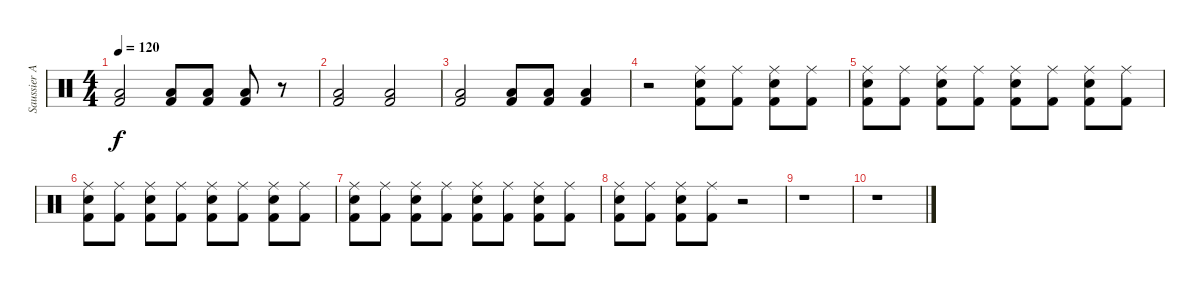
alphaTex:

\track ("Saussier Arthur" "Saussier A") {instrument percussion}
\staff {score}
\articulation defaults
\ts (4 4)
\tempo 120
\clef neutral
\ks c
("Low Floor Tom (hit)" "Kick (hit) 2").2{dy f} ("Low Floor Tom (hit)" "Kick (hit) 2").8 ("Low Floor Tom (hit)" "Kick (hit) 2").8 ("Low Floor Tom (hit)" "Kick (hit) 2").8 r.8 |
("Low Floor Tom (hit)" "Kick (hit) 2").2 ("Low Floor Tom (hit)" "Kick (hit) 2").2 |
("Low Floor Tom (hit)" "Kick (hit) 2").2 ("Low Floor Tom (hit)" "Kick (hit) 2").8 ("Low Floor Tom (hit)" "Kick (hit) 2").8 ("Low Floor Tom (hit)" "Kick (hit) 2").4 |
r.2 ("Ride (middle)" "Electric Snare (hit)" "Kick (hit) 2").8 ("Ride (middle)" "Kick (hit) 2").8 ("Ride (middle)" "Electric Snare (hit)" "Kick (hit) 2").8 ("Ride (middle)" "Kick (hit) 2").8 |
("Ride (middle)" "Electric Snare (hit)" "Kick (hit) 2").8 ("Ride (middle)" "Kick (hit) 2").8 ("Ride (middle)" "Electric Snare (hit)" "Kick (hit) 2").8 ("Ride (middle)" "Kick (hit) 2").8 ("Ride (middle)" "Electric Snare (hit)" "Kick (hit) 2").8 ("Ride (middle)" "Kick (hit) 2").8 ("Ride (middle)" "Electric Snare (hit)" "Kick (hit) 2").8 ("Ride (middle)" "Kick (hit) 2").8 |
("Ride (middle)" "Electric Snare (hit)" "Kick (hit) 2").8 ("Ride (middle)" "Kick (hit) 2").8 ("Ride (middle)" "Electric Snare (hit)" "Kick (hit) 2").8 ("Ride (middle)" "Kick (hit) 2").8 ("Ride (middle)" "Electric Snare (hit)" "Kick (hit) 2").8 ("Ride (middle)" "Kick (hit) 2").8 ("Ride (middle)" "Electric Snare (hit)" "Kick (hit) 2").8 ("Ride (middle)" "Kick (hit) 2").8 |
("Ride (middle)" "Electric Snare (hit)" "Kick (hit) 2").8 ("Ride (middle)" "Kick (hit) 2").8 ("Ride (middle)" "Electric Snare (hit)" "Kick (hit) 2").8 ("Ride (middle)" "Kick (hit) 2").8 ("Ride (middle)" "Electric Snare (hit)" "Kick (hit) 2").8 ("Ride (middle)" "Kick (hit) 2").8 ("Ride (middle)" "Electric Snare (hit)" "Kick (hit) 2").8 ("Ride (middle)" "Kick (hit) 2").8 |
("Ride (middle)" "Electric Snare (hit)" "Kick (hit) 2").8 ("Ride (middle)" "Kick (hit) 2").8 ("Ride (middle)" "Electric Snare (hit)" "Kick (hit) 2").8 ("Ride (middle)" "Kick (hit) 2").8 r.2 |
r.1 |
r.1
